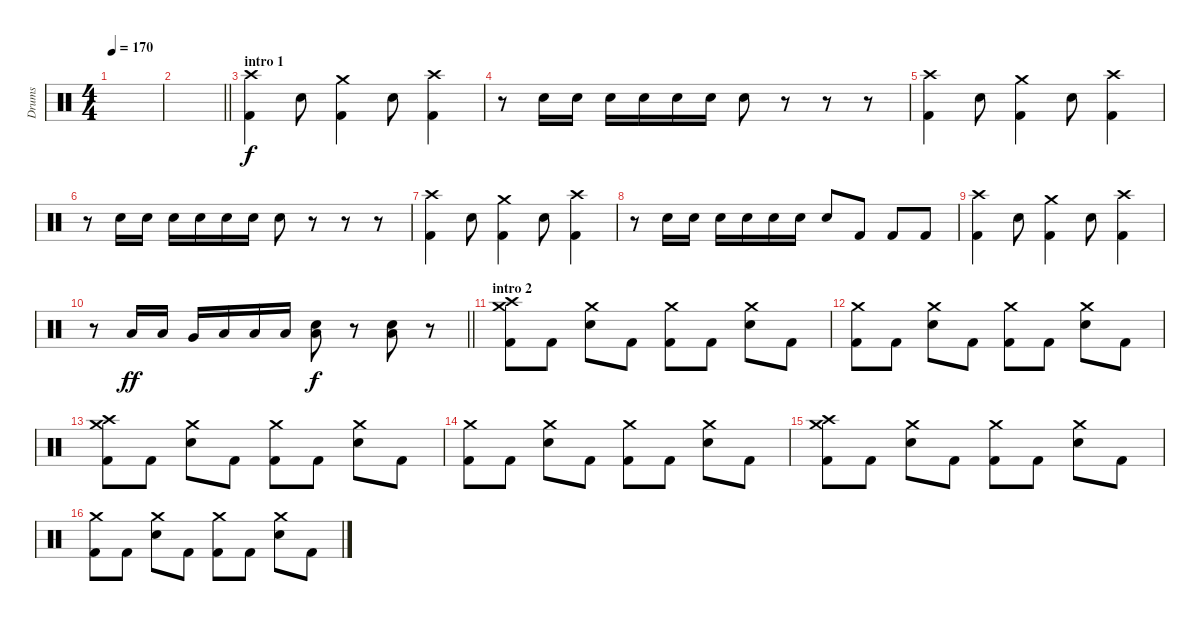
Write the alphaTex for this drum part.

\track ("Drums" "Drums") {instrument percussion}
\staff {score}
\articulation defaults
\ts (4 4)
\tempo 170
\clef neutral
\ks c
|
\barLineRight lightlight
|
\section ("" "intro 1")
("Crash high (hit)" "Kick (hit) 2").4 "Electric Snare (hit)".8 ("Crash medium (hit)" "Kick (hit) 2").4 "Electric Snare (hit)".8 ("Crash high (hit)" "Kick (hit) 2").4 |
r.8 "Electric Snare (hit)".16 "Electric Snare (hit)".16 "Electric Snare (hit)".16 "Electric Snare (hit)".16 "Electric Snare (hit)".16 "Electric Snare (hit)".16 "Electric Snare (hit)".8 r.8 r.8 r.8 |
("Crash high (hit)" "Kick (hit) 2").4 "Electric Snare (hit)".8 ("Crash medium (hit)" "Kick (hit) 2").4 "Electric Snare (hit)".8 ("Crash high (hit)" "Kick (hit) 2").4 |
r.8 "Electric Snare (hit)".16 "Electric Snare (hit)".16 "Electric Snare (hit)".16 "Electric Snare (hit)".16 "Electric Snare (hit)".16 "Electric Snare (hit)".16 "Electric Snare (hit)".8 r.8 r.8 r.8 |
("Crash high (hit)" "Kick (hit) 2").4 "Electric Snare (hit)".8 ("Crash medium (hit)" "Kick (hit) 2").4 "Electric Snare (hit)".8 ("Crash high (hit)" "Kick (hit) 2").4 |
r.8 "Electric Snare (hit)".16 "Electric Snare (hit)".16 "Electric Snare (hit)".16 "Electric Snare (hit)".16 "Electric Snare (hit)".16 "Electric Snare (hit)".16 "Electric Snare (hit)".8 "Kick (hit) 2".8 "Kick (hit) 2".8 "Kick (hit) 2".8 |
("Crash high (hit)" "Kick (hit) 2").4 "Electric Snare (hit)".8 ("Crash medium (hit)" "Kick (hit) 2").4 "Electric Snare (hit)".8 ("Crash high (hit)" "Kick (hit) 2").4 |
\barLineRight lightlight
r.8 "Low Tom (hit)".16{dy ff} "Low Floor Tom (hit)".16 "Very Low Tom (hit)".16 "Low Floor Tom (hit)".16 "Low Floor Tom (hit)".16 "Low Floor Tom (hit)".16 ("Low Floor Tom (hit)" "Electric Snare (hit)").8{dy f} r.8 ("Low Floor Tom (hit)" "Electric Snare (hit)").8 r.8 |
\section ("" "intro 2")
("Crash high (hit)" "Crash medium (hit)" "Kick (hit) 2").8 "Kick (hit) 2".8 ("Crash medium (hit)" "Electric Snare (hit)").8 "Kick (hit) 2".8 ("Crash medium (hit)" "Kick (hit) 2").8 "Kick (hit) 2".8 ("Crash medium (hit)" "Electric Snare (hit)").8 "Kick (hit) 2".8 |
("Crash medium (hit)" "Kick (hit) 2").8 "Kick (hit) 2".8 ("Crash medium (hit)" "Electric Snare (hit)").8 "Kick (hit) 2".8 ("Crash medium (hit)" "Kick (hit) 2").8 "Kick (hit) 2".8 ("Crash medium (hit)" "Electric Snare (hit)").8 "Kick (hit) 2".8 |
("Crash high (hit)" "Crash medium (hit)" "Kick (hit) 2").8 "Kick (hit) 2".8 ("Crash medium (hit)" "Electric Snare (hit)").8 "Kick (hit) 2".8 ("Crash medium (hit)" "Kick (hit) 2").8 "Kick (hit) 2".8 ("Crash medium (hit)" "Electric Snare (hit)").8 "Kick (hit) 2".8 |
("Crash medium (hit)" "Kick (hit) 2").8 "Kick (hit) 2".8 ("Crash medium (hit)" "Electric Snare (hit)").8 "Kick (hit) 2".8 ("Crash medium (hit)" "Kick (hit) 2").8 "Kick (hit) 2".8 ("Crash medium (hit)" "Electric Snare (hit)").8 "Kick (hit) 2".8 |
("Crash high (hit)" "Crash medium (hit)" "Kick (hit) 2").8 "Kick (hit) 2".8 ("Crash medium (hit)" "Electric Snare (hit)").8 "Kick (hit) 2".8 ("Crash medium (hit)" "Kick (hit) 2").8 "Kick (hit) 2".8 ("Crash medium (hit)" "Electric Snare (hit)").8 "Kick (hit) 2".8 |
("Crash medium (hit)" "Kick (hit) 2").8 "Kick (hit) 2".8 ("Crash medium (hit)" "Electric Snare (hit)").8 "Kick (hit) 2".8 ("Crash medium (hit)" "Kick (hit) 2").8 "Kick (hit) 2".8 ("Crash medium (hit)" "Electric Snare (hit)").8 "Kick (hit) 2".8
